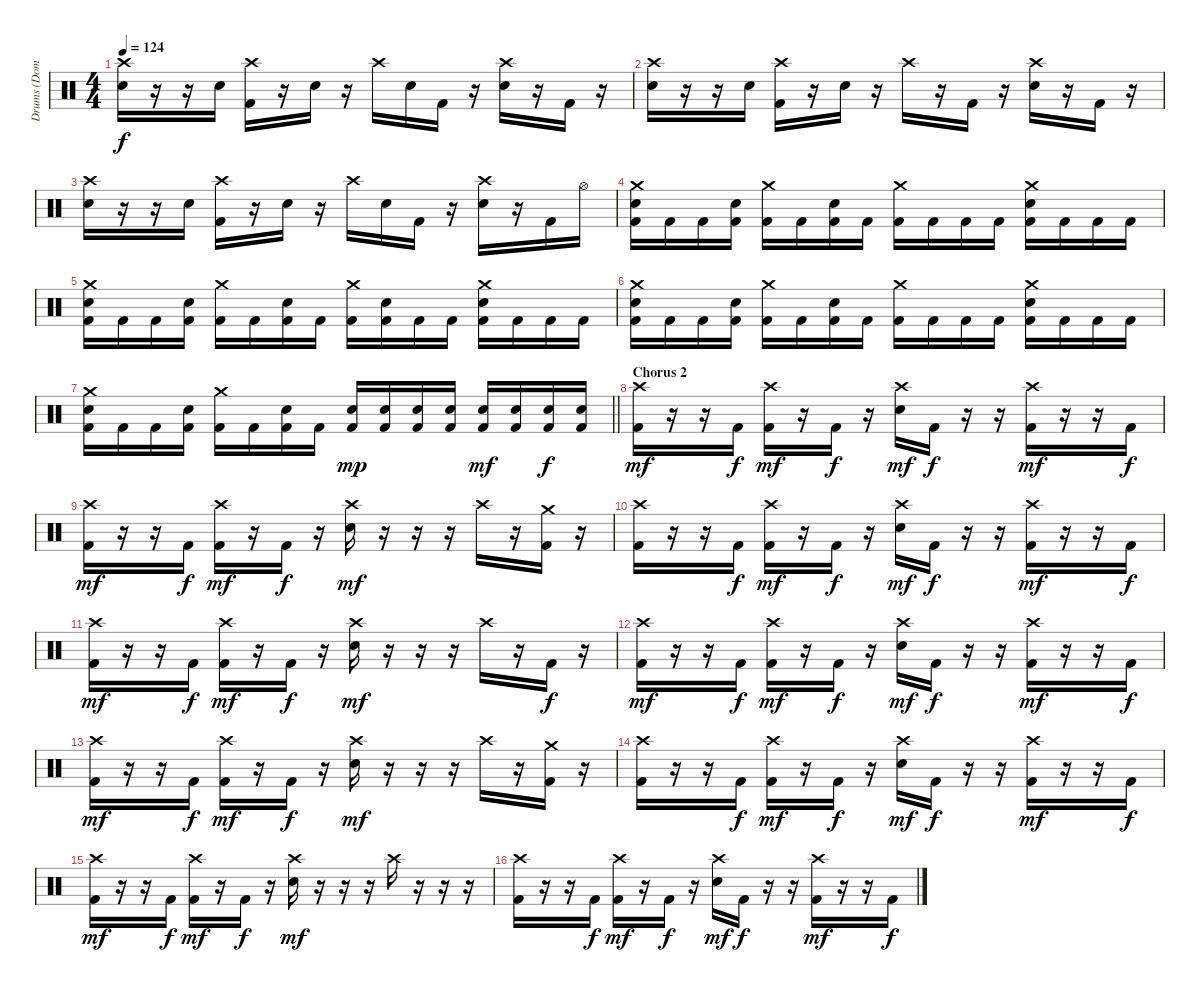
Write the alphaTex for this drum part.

\track ("Drums (Dominik)" "Drums (Dom") {instrument percussion}
\staff {score}
\articulation defaults
\ts (4 4)
\tempo 124
\clef neutral
\ks c
("Crash high (hit)" "Electric Snare (hit)").16{dy f} r.16 r.16 "Electric Snare (hit)".16 ("Crash high (hit)" "Kick (hit) 2").16 r.16 "Electric Snare (hit)".16 r.16 "Crash high (hit)".16 "Electric Snare (hit)".16 "Kick (hit) 2".16 r.16 ("Crash high (hit)" "Electric Snare (hit)").16 r.16 "Kick (hit) 2".16 r.16 |
("Crash high (hit)" "Electric Snare (hit)").16 r.16 r.16 "Electric Snare (hit)".16 ("Crash high (hit)" "Kick (hit) 2").16 r.16 "Electric Snare (hit)".16 r.16 "Crash high (hit)".16 r.16 "Kick (hit) 2".16 r.16 ("Crash high (hit)" "Electric Snare (hit)").16 r.16 "Kick (hit) 2".16 r.16 |
("Crash high (hit)" "Electric Snare (hit)").16 r.16 r.16 "Electric Snare (hit)".16 ("Crash high (hit)" "Kick (hit) 2").16 r.16 "Electric Snare (hit)".16 r.16 "Crash high (hit)".16 "Electric Snare (hit)".16 "Kick (hit) 2".16 r.16 ("Crash high (hit)" "Electric Snare (hit)").16 r.16 "Kick (hit) 2".16 "Hi-Hat (open)".16 |
("Crash medium (hit)" "Electric Snare (hit)" "Kick (hit) 2").16 "Kick (hit) 2".16 "Kick (hit) 2".16 ("Electric Snare (hit)" "Kick (hit) 2").16 ("Crash medium (hit)" "Kick (hit) 2").16 "Kick (hit) 2".16 ("Electric Snare (hit)" "Kick (hit) 2").16 "Kick (hit) 2".16 ("Crash medium (hit)" "Kick (hit) 2").16 "Kick (hit) 2".16 "Kick (hit) 2".16 "Kick (hit) 2".16 ("Crash medium (hit)" "Electric Snare (hit)" "Kick (hit) 2").16 "Kick (hit) 2".16 "Kick (hit) 2".16 "Kick (hit) 2".16 |
("Crash medium (hit)" "Electric Snare (hit)" "Kick (hit) 2").16 "Kick (hit) 2".16 "Kick (hit) 2".16 ("Electric Snare (hit)" "Kick (hit) 2").16 ("Crash medium (hit)" "Kick (hit) 2").16 "Kick (hit) 2".16 ("Electric Snare (hit)" "Kick (hit) 2").16 "Kick (hit) 2".16 ("Crash medium (hit)" "Kick (hit) 2").16 ("Electric Snare (hit)" "Kick (hit) 2").16 "Kick (hit) 2".16 "Kick (hit) 2".16 ("Crash medium (hit)" "Electric Snare (hit)" "Kick (hit) 2").16 "Kick (hit) 2".16 "Kick (hit) 2".16 "Kick (hit) 2".16 |
("Crash medium (hit)" "Electric Snare (hit)" "Kick (hit) 2").16 "Kick (hit) 2".16 "Kick (hit) 2".16 ("Electric Snare (hit)" "Kick (hit) 2").16 ("Crash medium (hit)" "Kick (hit) 2").16 "Kick (hit) 2".16 ("Electric Snare (hit)" "Kick (hit) 2").16 "Kick (hit) 2".16 ("Crash medium (hit)" "Kick (hit) 2").16 "Kick (hit) 2".16 "Kick (hit) 2".16 "Kick (hit) 2".16 ("Crash medium (hit)" "Electric Snare (hit)" "Kick (hit) 2").16 "Kick (hit) 2".16 "Kick (hit) 2".16 "Kick (hit) 2".16 |
\barLineRight lightlight
("Crash medium (hit)" "Electric Snare (hit)" "Kick (hit) 2").16 "Kick (hit) 2".16 "Kick (hit) 2".16 ("Electric Snare (hit)" "Kick (hit) 2").16 ("Crash medium (hit)" "Kick (hit) 2").16 "Kick (hit) 2".16 ("Electric Snare (hit)" "Kick (hit) 2").16 "Kick (hit) 2".16 ("Electric Snare (hit)" "Kick (hit) 2").16{dy mp} ("Electric Snare (hit)" "Kick (hit) 2").16 ("Electric Snare (hit)" "Kick (hit) 2").16 ("Electric Snare (hit)" "Kick (hit) 2").16 ("Electric Snare (hit)" "Kick (hit) 2").16{dy mf} ("Electric Snare (hit)" "Kick (hit) 2").16 ("Electric Snare (hit)" "Kick (hit) 2").16{dy f} ("Electric Snare (hit)" "Kick (hit) 2").16 |
\section ("" "Chorus 2")
("Crash high (hit)" "Kick (hit) 2").16{dy mf} r.16 r.16 "Kick (hit) 2".16{dy f} ("Crash high (hit)" "Kick (hit) 2").16{dy mf} r.16 "Kick (hit) 2".16{dy f} r.16 ("Crash high (hit)" "Electric Snare (hit)").16{dy mf} "Kick (hit) 2".16{dy f} r.16 r.16 ("Crash high (hit)" "Kick (hit) 2").16{dy mf} r.16 r.16 "Kick (hit) 2".16{dy f} |
("Crash high (hit)" "Kick (hit) 2").16{dy mf} r.16 r.16 "Kick (hit) 2".16{dy f} ("Crash high (hit)" "Kick (hit) 2").16{dy mf} r.16 "Kick (hit) 2".16{dy f} r.16 ("Crash high (hit)" "Electric Snare (hit)").16{dy mf} r.16 r.16 r.16 "Crash high (hit)".16 r.16 ("Crash medium (hit)" "Kick (hit) 2").16 r.16 |
("Crash high (hit)" "Kick (hit) 2").16 r.16 r.16 "Kick (hit) 2".16{dy f} ("Crash high (hit)" "Kick (hit) 2").16{dy mf} r.16 "Kick (hit) 2".16{dy f} r.16 ("Crash high (hit)" "Electric Snare (hit)").16{dy mf} "Kick (hit) 2".16{dy f} r.16 r.16 ("Crash high (hit)" "Kick (hit) 2").16{dy mf} r.16 r.16 "Kick (hit) 2".16{dy f} |
("Crash high (hit)" "Kick (hit) 2").16{dy mf} r.16 r.16 "Kick (hit) 2".16{dy f} ("Crash high (hit)" "Kick (hit) 2").16{dy mf} r.16 "Kick (hit) 2".16{dy f} r.16 ("Crash high (hit)" "Electric Snare (hit)").16{dy mf} r.16 r.16 r.16 "Crash high (hit)".16 r.16 "Kick (hit) 2".16{dy f} r.16 |
("Crash high (hit)" "Kick (hit) 2").16{dy mf} r.16 r.16 "Kick (hit) 2".16{dy f} ("Crash high (hit)" "Kick (hit) 2").16{dy mf} r.16 "Kick (hit) 2".16{dy f} r.16 ("Crash high (hit)" "Electric Snare (hit)").16{dy mf} "Kick (hit) 2".16{dy f} r.16 r.16 ("Crash high (hit)" "Kick (hit) 2").16{dy mf} r.16 r.16 "Kick (hit) 2".16{dy f} |
("Crash high (hit)" "Kick (hit) 2").16{dy mf} r.16 r.16 "Kick (hit) 2".16{dy f} ("Crash high (hit)" "Kick (hit) 2").16{dy mf} r.16 "Kick (hit) 2".16{dy f} r.16 ("Crash high (hit)" "Electric Snare (hit)").16{dy mf} r.16 r.16 r.16 "Crash high (hit)".16 r.16 ("Crash medium (hit)" "Kick (hit) 2").16 r.16 |
("Crash high (hit)" "Kick (hit) 2").16 r.16 r.16 "Kick (hit) 2".16{dy f} ("Crash high (hit)" "Kick (hit) 2").16{dy mf} r.16 "Kick (hit) 2".16{dy f} r.16 ("Crash high (hit)" "Electric Snare (hit)").16{dy mf} "Kick (hit) 2".16{dy f} r.16 r.16 ("Crash high (hit)" "Kick (hit) 2").16{dy mf} r.16 r.16 "Kick (hit) 2".16{dy f} |
("Crash high (hit)" "Kick (hit) 2").16{dy mf} r.16 r.16 "Kick (hit) 2".16{dy f} ("Crash high (hit)" "Kick (hit) 2").16{dy mf} r.16 "Kick (hit) 2".16{dy f} r.16 ("Crash high (hit)" "Electric Snare (hit)").16{dy mf} r.16 r.16 r.16 "Crash high (hit)".16 r.16 r.16 r.16 |
("Crash high (hit)" "Kick (hit) 2").16 r.16 r.16 "Kick (hit) 2".16{dy f} ("Crash high (hit)" "Kick (hit) 2").16{dy mf} r.16 "Kick (hit) 2".16{dy f} r.16 ("Crash high (hit)" "Electric Snare (hit)").16{dy mf} "Kick (hit) 2".16{dy f} r.16 r.16 ("Crash high (hit)" "Kick (hit) 2").16{dy mf} r.16 r.16 "Kick (hit) 2".16{dy f}
